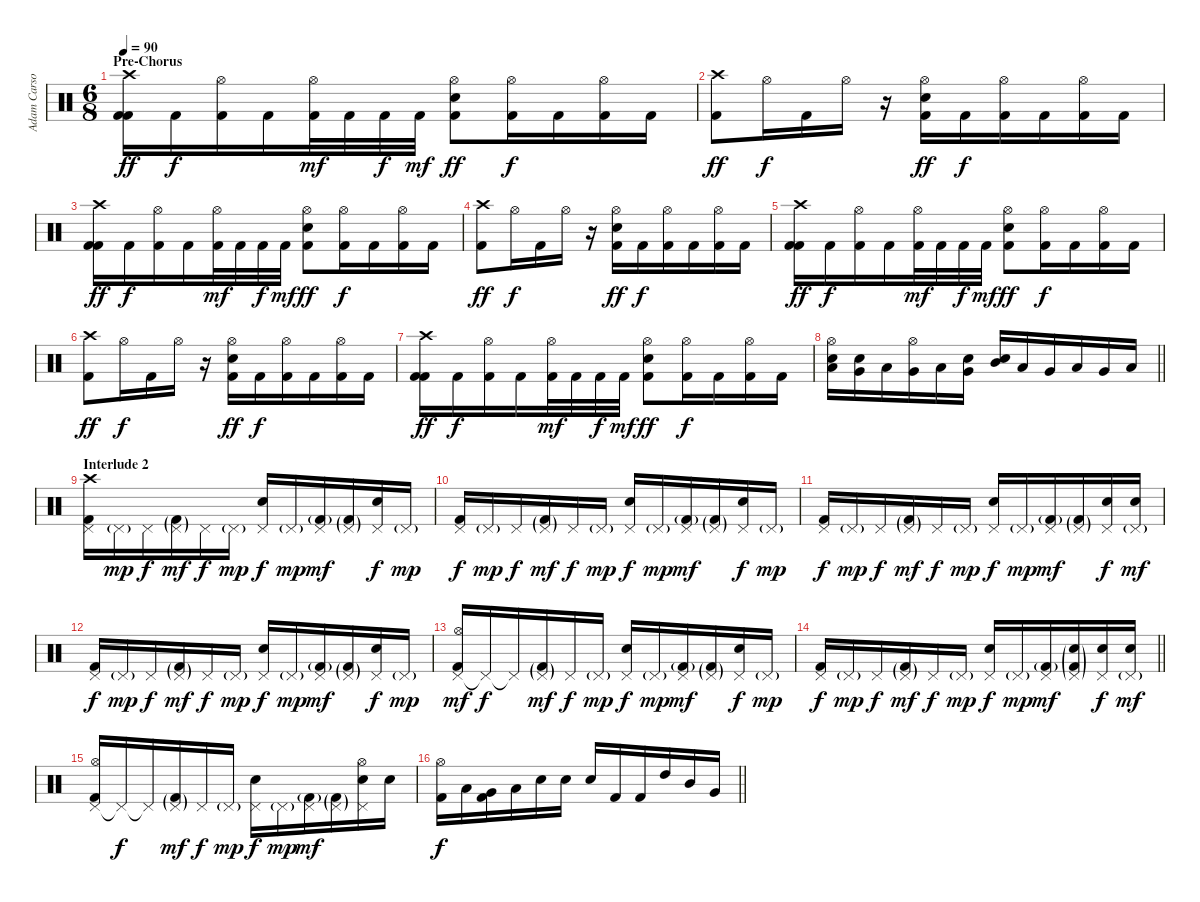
\track ("Adam Carson" "Adam Carso") {instrument percussion}
\staff {score}
\articulation defaults
\ts (6 8)
\section ("" "Pre-Chorus")
\tempo 90
\clef neutral
\ks c
("Crash high (hit)" "Kick (hit) 2" "Kick (hit) 2").16{dy ff} "Kick (hit) 2".16{dy f} ("Hi-Hat (open)" "Kick (hit) 2").16 "Kick (hit) 2".16 ("Hi-Hat (open)" "Kick (hit) 2").32{dy mf} "Kick (hit) 2".32 "Kick (hit) 2".32{dy f} "Kick (hit) 2".32{dy mf} ("Hi-Hat (open)" "Snare (hit) 2" "Kick (hit) 2").8{dy ff} ("Hi-Hat (open)" "Kick (hit) 2").16{dy f} "Kick (hit) 2".16 ("Hi-Hat (open)" "Kick (hit) 2").16 "Kick (hit) 2".16 |
("Crash high (hit)" "Kick (hit) 2").8{dy ff} "Hi-Hat (open)".16{dy f} "Kick (hit) 2".16 "Hi-Hat (open)".16 r.16 ("Hi-Hat (open)" "Snare (hit) 2" "Kick (hit) 2").16{dy ff} "Kick (hit) 2".16{dy f} ("Hi-Hat (open)" "Kick (hit) 2").16 "Kick (hit) 2".16 ("Hi-Hat (open)" "Kick (hit) 2").16 "Kick (hit) 2".16 |
("Crash high (hit)" "Kick (hit) 2" "Kick (hit) 2").16{dy ff} "Kick (hit) 2".16{dy f} ("Hi-Hat (open)" "Kick (hit) 2").16 "Kick (hit) 2".16 ("Hi-Hat (open)" "Kick (hit) 2").32{dy mf} "Kick (hit) 2".32 "Kick (hit) 2".32{dy f} "Kick (hit) 2".32{dy mf} ("Hi-Hat (open)" "Snare (hit) 2" "Kick (hit) 2").8{dy ff} ("Hi-Hat (open)" "Kick (hit) 2").16{dy f} "Kick (hit) 2".16 ("Hi-Hat (open)" "Kick (hit) 2").16 "Kick (hit) 2".16 |
("Crash high (hit)" "Kick (hit) 2").8{dy ff} "Hi-Hat (open)".16{dy f} "Kick (hit) 2".16 "Hi-Hat (open)".16 r.16 ("Hi-Hat (open)" "Snare (hit) 2" "Kick (hit) 2").16{dy ff} "Kick (hit) 2".16{dy f} ("Hi-Hat (open)" "Kick (hit) 2").16 "Kick (hit) 2".16 ("Hi-Hat (open)" "Kick (hit) 2").16 "Kick (hit) 2".16 |
("Crash high (hit)" "Kick (hit) 2" "Kick (hit) 2").16{dy ff} "Kick (hit) 2".16{dy f} ("Hi-Hat (open)" "Kick (hit) 2").16 "Kick (hit) 2".16 ("Hi-Hat (open)" "Kick (hit) 2").32{dy mf} "Kick (hit) 2".32 "Kick (hit) 2".32{dy f} "Kick (hit) 2".32{dy mf} ("Hi-Hat (open)" "Snare (hit) 2" "Kick (hit) 2").8{dy ff} ("Hi-Hat (open)" "Kick (hit) 2").16{dy f} "Kick (hit) 2".16 ("Hi-Hat (open)" "Kick (hit) 2").16 "Kick (hit) 2".16 |
("Crash high (hit)" "Kick (hit) 2").8{dy ff} "Hi-Hat (open)".16{dy f} "Kick (hit) 2".16 "Hi-Hat (open)".16 r.16 ("Hi-Hat (open)" "Snare (hit) 2" "Kick (hit) 2").16{dy ff} "Kick (hit) 2".16{dy f} ("Hi-Hat (open)" "Kick (hit) 2").16 "Kick (hit) 2".16 ("Hi-Hat (open)" "Kick (hit) 2").16 "Kick (hit) 2".16 |
("Crash high (hit)" "Kick (hit) 2" "Kick (hit) 2").16{dy ff} "Kick (hit) 2".16{dy f} ("Hi-Hat (open)" "Kick (hit) 2").16 "Kick (hit) 2".16 ("Hi-Hat (open)" "Kick (hit) 2").32{dy mf} "Kick (hit) 2".32 "Kick (hit) 2".32{dy f} "Kick (hit) 2".32{dy mf} ("Hi-Hat (open)" "Snare (hit) 2" "Kick (hit) 2").8{dy ff} ("Hi-Hat (open)" "Kick (hit) 2").16{dy f} "Kick (hit) 2".16 ("Hi-Hat (open)" "Kick (hit) 2").16 "Kick (hit) 2".16 |
\barLineRight lightlight
("Hi-Hat (open)" "Low Floor Tom (hit)" "Snare (hit) 2").16 ("Very Low Tom (hit)" "Snare (hit) 2").16 "Low Tom (hit)".16 ("Hi-Hat (open)" "Very Low Tom (hit)").16 "Low Floor Tom (hit)".16 ("Snare (hit) 2" "Very Low Tom (hit)").16 ("Snare (hit) 2" "Mid Tom (hit)").16 "Low Tom (hit)".16 "Very Low Tom (hit)".16 "Low Tom (hit)".16 "Very Low Tom (hit)".16 "Low Floor Tom (hit)".16 |
\section ("" "Interlude 2")
("Pedal Hi-Hat (hit)" "Crash high (hit)" "Kick (hit) 2").16 "Pedal Hi-Hat (hit)"{g}.16{dy mp} "Pedal Hi-Hat (hit)".16{dy f} ("Pedal Hi-Hat (hit)"{g} "Kick (hit) 2"{g}).16{dy mf} "Pedal Hi-Hat (hit)".16{dy f} "Pedal Hi-Hat (hit)"{g}.16{dy mp} ("Pedal Hi-Hat (hit)" "Snare (hit) 2").16{dy f} "Pedal Hi-Hat (hit)"{g}.16{dy mp} ("Pedal Hi-Hat (hit)" "Kick (hit) 2"{g}).16{dy mf} ("Pedal Hi-Hat (hit)"{g} "Kick (hit) 2"{g}).16 ("Pedal Hi-Hat (hit)" "Snare (hit) 2").16{dy f} "Pedal Hi-Hat (hit)"{g}.16{dy mp} |
("Pedal Hi-Hat (hit)" "Kick (hit) 2").16{dy f} "Pedal Hi-Hat (hit)"{g}.16{dy mp} "Pedal Hi-Hat (hit)".16{dy f} ("Pedal Hi-Hat (hit)"{g} "Kick (hit) 2"{g}).16{dy mf} "Pedal Hi-Hat (hit)".16{dy f} "Pedal Hi-Hat (hit)"{g}.16{dy mp} ("Pedal Hi-Hat (hit)" "Snare (hit) 2").16{dy f} "Pedal Hi-Hat (hit)"{g}.16{dy mp} ("Pedal Hi-Hat (hit)" "Kick (hit) 2"{g}).16{dy mf} ("Pedal Hi-Hat (hit)"{g} "Kick (hit) 2"{g}).16 ("Pedal Hi-Hat (hit)" "Snare (hit) 2").16{dy f} "Pedal Hi-Hat (hit)"{g}.16{dy mp} |
("Pedal Hi-Hat (hit)" "Kick (hit) 2").16{dy f} "Pedal Hi-Hat (hit)"{g}.16{dy mp} "Pedal Hi-Hat (hit)".16{dy f} ("Pedal Hi-Hat (hit)"{g} "Kick (hit) 2"{g}).16{dy mf} "Pedal Hi-Hat (hit)".16{dy f} "Pedal Hi-Hat (hit)"{g}.16{dy mp} ("Pedal Hi-Hat (hit)" "Snare (hit) 2").16{dy f} "Pedal Hi-Hat (hit)"{g}.16{dy mp} ("Pedal Hi-Hat (hit)" "Kick (hit) 2"{g}).16{dy mf} ("Pedal Hi-Hat (hit)"{g} "Kick (hit) 2"{g}).16 ("Pedal Hi-Hat (hit)" "Snare (hit) 2").16{dy f} ("Pedal Hi-Hat (hit)"{g} "Snare (hit) 2").16{dy mf} |
("Pedal Hi-Hat (hit)" "Kick (hit) 2").16{dy f} "Pedal Hi-Hat (hit)"{g}.16{dy mp} "Pedal Hi-Hat (hit)".16{dy f} ("Pedal Hi-Hat (hit)"{g} "Kick (hit) 2"{g}).16{dy mf} "Pedal Hi-Hat (hit)".16{dy f} "Pedal Hi-Hat (hit)"{g}.16{dy mp} ("Pedal Hi-Hat (hit)" "Snare (hit) 2").16{dy f} "Pedal Hi-Hat (hit)"{g}.16{dy mp} ("Pedal Hi-Hat (hit)" "Kick (hit) 2"{g}).16{dy mf} ("Pedal Hi-Hat (hit)"{g} "Kick (hit) 2"{g}).16 ("Pedal Hi-Hat (hit)" "Snare (hit) 2").16{dy f} "Pedal Hi-Hat (hit)"{g}.16{dy mp} |
("Pedal Hi-Hat (hit)" "Hi-Hat (open)" "Kick (hit) 2").16{dy mf} "Pedal Hi-Hat (hit)"{t}.16{dy f} "Pedal Hi-Hat (hit)"{t}.16 ("Pedal Hi-Hat (hit)"{g} "Kick (hit) 2"{g}).16{dy mf} "Pedal Hi-Hat (hit)".16{dy f} "Pedal Hi-Hat (hit)"{g}.16{dy mp} ("Pedal Hi-Hat (hit)" "Snare (hit) 2").16{dy f} "Pedal Hi-Hat (hit)"{g}.16{dy mp} ("Pedal Hi-Hat (hit)" "Kick (hit) 2"{g}).16{dy mf} ("Pedal Hi-Hat (hit)"{g} "Kick (hit) 2"{g}).16 ("Pedal Hi-Hat (hit)" "Snare (hit) 2").16{dy f} "Pedal Hi-Hat (hit)"{g}.16{dy mp} |
\barLineRight lightlight
("Pedal Hi-Hat (hit)" "Kick (hit) 2").16{dy f} "Pedal Hi-Hat (hit)"{g}.16{dy mp} "Pedal Hi-Hat (hit)".16{dy f} ("Pedal Hi-Hat (hit)"{g} "Kick (hit) 2"{g}).16{dy mf} "Pedal Hi-Hat (hit)".16{dy f} "Pedal Hi-Hat (hit)"{g}.16{dy mp} ("Pedal Hi-Hat (hit)" "Snare (hit) 2").16{dy f} "Pedal Hi-Hat (hit)"{g}.16{dy mp} ("Pedal Hi-Hat (hit)" "Kick (hit) 2"{g}).16{dy mf} ("Pedal Hi-Hat (hit)"{g} "Snare (hit) 2"{g} "Kick (hit) 2"{g}).16 ("Pedal Hi-Hat (hit)" "Snare (hit) 2").16{dy f} ("Pedal Hi-Hat (hit)"{g} "Snare (hit) 2").16{dy mf} |
("Pedal Hi-Hat (hit)" "Hi-Hat (open)" "Kick (hit) 2").16 "Pedal Hi-Hat (hit)"{t}.16{dy f} "Pedal Hi-Hat (hit)"{t}.16 ("Pedal Hi-Hat (hit)"{g} "Kick (hit) 2"{g}).16{dy mf} "Pedal Hi-Hat (hit)".16{dy f} "Pedal Hi-Hat (hit)"{g}.16{dy mp} ("Pedal Hi-Hat (hit)" "Snare (hit) 2").16{dy f} "Pedal Hi-Hat (hit)"{g}.16{dy mp} ("Pedal Hi-Hat (hit)" "Kick (hit) 2"{g}).16{dy mf} ("Pedal Hi-Hat (hit)"{g} "Kick (hit) 2"{g}).16 ("Pedal Hi-Hat (hit)" "Hi-Hat (open)" "Snare (hit) 2").16 "Snare (hit) 2".16 |
\barLineRight lightlight
("Kick (hit) 2" "Hi-Hat (open)").16{dy f} "Low Floor Tom (hit)".16 ("Very Low Tom (hit)" "Kick (hit) 2").16 "Low Tom (hit)".16 "Snare (hit) 2".16 "Snare (hit) 2".16 "Snare (hit) 2".16 "Kick (hit) 2".16 "Kick (hit) 2".16 "High Tom (hit)".16 "Mid Tom (hit)".16 "Very Low Tom (hit)".16
